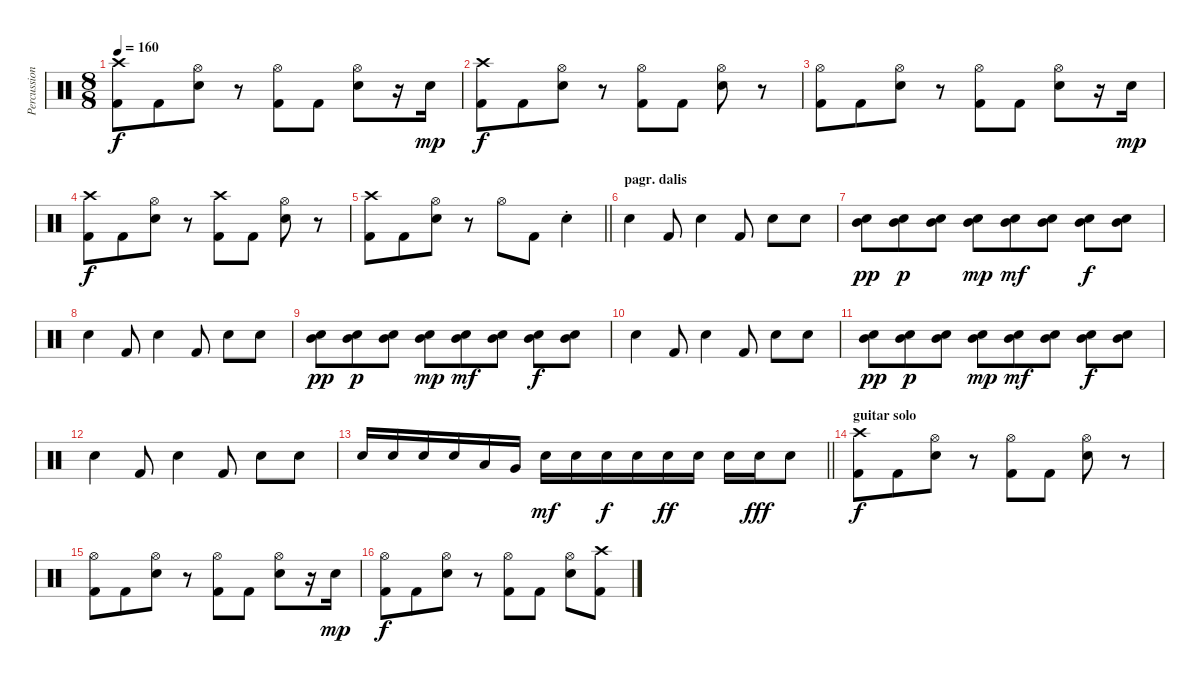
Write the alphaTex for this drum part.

\track ("Percussion" "Percussion") {instrument percussion}
\staff {score}
\articulation defaults
\ts (8 8)
\tempo 160
\clef neutral
\ks c
("Crash high (hit)" "Kick (hit) 2").8{dy f} "Kick (hit) 2".8 ("Hi-Hat (open)" "Snare (hit) 2").8 r.8 ("Hi-Hat (open)" "Kick (hit) 2").8 "Kick (hit) 2".8 ("Hi-Hat (open)" "Snare (hit) 2").8 r.16 "Snare (hit) 2".16{dy mp} |
("Crash high (hit)" "Kick (hit) 2").8{dy f} "Kick (hit) 2".8 ("Hi-Hat (open)" "Snare (hit) 2").8 r.8 ("Hi-Hat (open)" "Kick (hit) 2").8 "Kick (hit) 2".8 ("Hi-Hat (open)" "Snare (hit) 2").8 r.8 |
("Hi-Hat (open)" "Kick (hit) 2").8 "Kick (hit) 2".8 ("Hi-Hat (open)" "Snare (hit) 2").8 r.8 ("Hi-Hat (open)" "Kick (hit) 2").8 "Kick (hit) 2".8 ("Hi-Hat (open)" "Snare (hit) 2").8 r.16 "Snare (hit) 2".16{dy mp} |
("Crash high (hit)" "Kick (hit) 2").8{dy f} "Kick (hit) 2".8 ("Hi-Hat (open)" "Snare (hit) 2").8 r.8 ("Crash high (hit)" "Kick (hit) 2").8 "Kick (hit) 2".8 ("Hi-Hat (open)" "Snare (hit) 2").8 r.8 |
\barLineRight lightlight
("Crash high (hit)" "Kick (hit) 2").8 "Kick (hit) 2".8 ("Hi-Hat (open)" "Snare (hit) 2").8 r.8 "Hi-Hat (open)".8 "Kick (hit) 2".8 "Snare (hit) 2"{st}.4 |
\section ("" "pagr. dalis")
"Snare (hit) 2".4 "Kick (hit) 2".8 "Snare (hit) 2".4 "Kick (hit) 2".8 "Snare (hit) 2".8 "Snare (hit) 2".8 |
("Mid Tom (hit)" "Snare (hit) 2").8{dy pp} ("Mid Tom (hit)" "Snare (hit) 2").8{dy p} ("Mid Tom (hit)" "Snare (hit) 2").8 ("Mid Tom (hit)" "Snare (hit) 2").8{dy mp} ("Mid Tom (hit)" "Snare (hit) 2").8{dy mf} ("Mid Tom (hit)" "Snare (hit) 2").8 ("Mid Tom (hit)" "Snare (hit) 2").8{dy f} ("Mid Tom (hit)" "Snare (hit) 2").8 |
"Snare (hit) 2".4 "Kick (hit) 2".8 "Snare (hit) 2".4 "Kick (hit) 2".8 "Snare (hit) 2".8 "Snare (hit) 2".8 |
("Mid Tom (hit)" "Snare (hit) 2").8{dy pp} ("Mid Tom (hit)" "Snare (hit) 2").8{dy p} ("Mid Tom (hit)" "Snare (hit) 2").8 ("Mid Tom (hit)" "Snare (hit) 2").8{dy mp} ("Mid Tom (hit)" "Snare (hit) 2").8{dy mf} ("Mid Tom (hit)" "Snare (hit) 2").8 ("Mid Tom (hit)" "Snare (hit) 2").8{dy f} ("Mid Tom (hit)" "Snare (hit) 2").8 |
"Snare (hit) 2".4 "Kick (hit) 2".8 "Snare (hit) 2".4 "Kick (hit) 2".8 "Snare (hit) 2".8 "Snare (hit) 2".8 |
("Mid Tom (hit)" "Snare (hit) 2").8{dy pp} ("Mid Tom (hit)" "Snare (hit) 2").8{dy p} ("Mid Tom (hit)" "Snare (hit) 2").8 ("Mid Tom (hit)" "Snare (hit) 2").8{dy mp} ("Mid Tom (hit)" "Snare (hit) 2").8{dy mf} ("Mid Tom (hit)" "Snare (hit) 2").8 ("Mid Tom (hit)" "Snare (hit) 2").8{dy f} ("Mid Tom (hit)" "Snare (hit) 2").8 |
"Snare (hit) 2".4 "Kick (hit) 2".8 "Snare (hit) 2".4 "Kick (hit) 2".8 "Snare (hit) 2".8 "Snare (hit) 2".8 |
\barLineRight lightlight "Snare (hit) 2".16 "Snare (hit) 2".16 "Snare (hit) 2".16 "Snare (hit) 2".16 "Low Tom (hit)".16 "Very Low Tom (hit)".16 "Snare (hit) 2".16{dy mf} "Snare (hit) 2".16 "Snare (hit) 2".16{dy f} "Snare (hit) 2".16 "Snare (hit) 2".16{dy ff} "Snare (hit) 2".16 "Snare (hit) 2".16 "Snare (hit) 2".16{dy fff} "Snare (hit) 2".8
|
\section ("" "guitar solo")
("Crash high (hit)" "Kick (hit) 2").8{dy f} "Kick (hit) 2".8 ("Hi-Hat (open)" "Snare (hit) 2").8 r.8 ("Hi-Hat (open)" "Kick (hit) 2").8 "Kick (hit) 2".8 ("Hi-Hat (open)" "Snare (hit) 2").8 r.8 |
("Hi-Hat (open)" "Kick (hit) 2").8 "Kick (hit) 2".8 ("Hi-Hat (open)" "Snare (hit) 2").8 r.8 ("Hi-Hat (open)" "Kick (hit) 2").8 "Kick (hit) 2".8 ("Hi-Hat (open)" "Snare (hit) 2").8 r.16 "Snare (hit) 2".16{dy mp} |
("Hi-Hat (open)" "Kick (hit) 2").8{dy f} "Kick (hit) 2".8 ("Hi-Hat (open)" "Snare (hit) 2").8 r.8 ("Hi-Hat (open)" "Kick (hit) 2").8 "Kick (hit) 2".8 ("Hi-Hat (open)" "Snare (hit) 2").8 ("Crash high (hit)" "Kick (hit) 2").8
